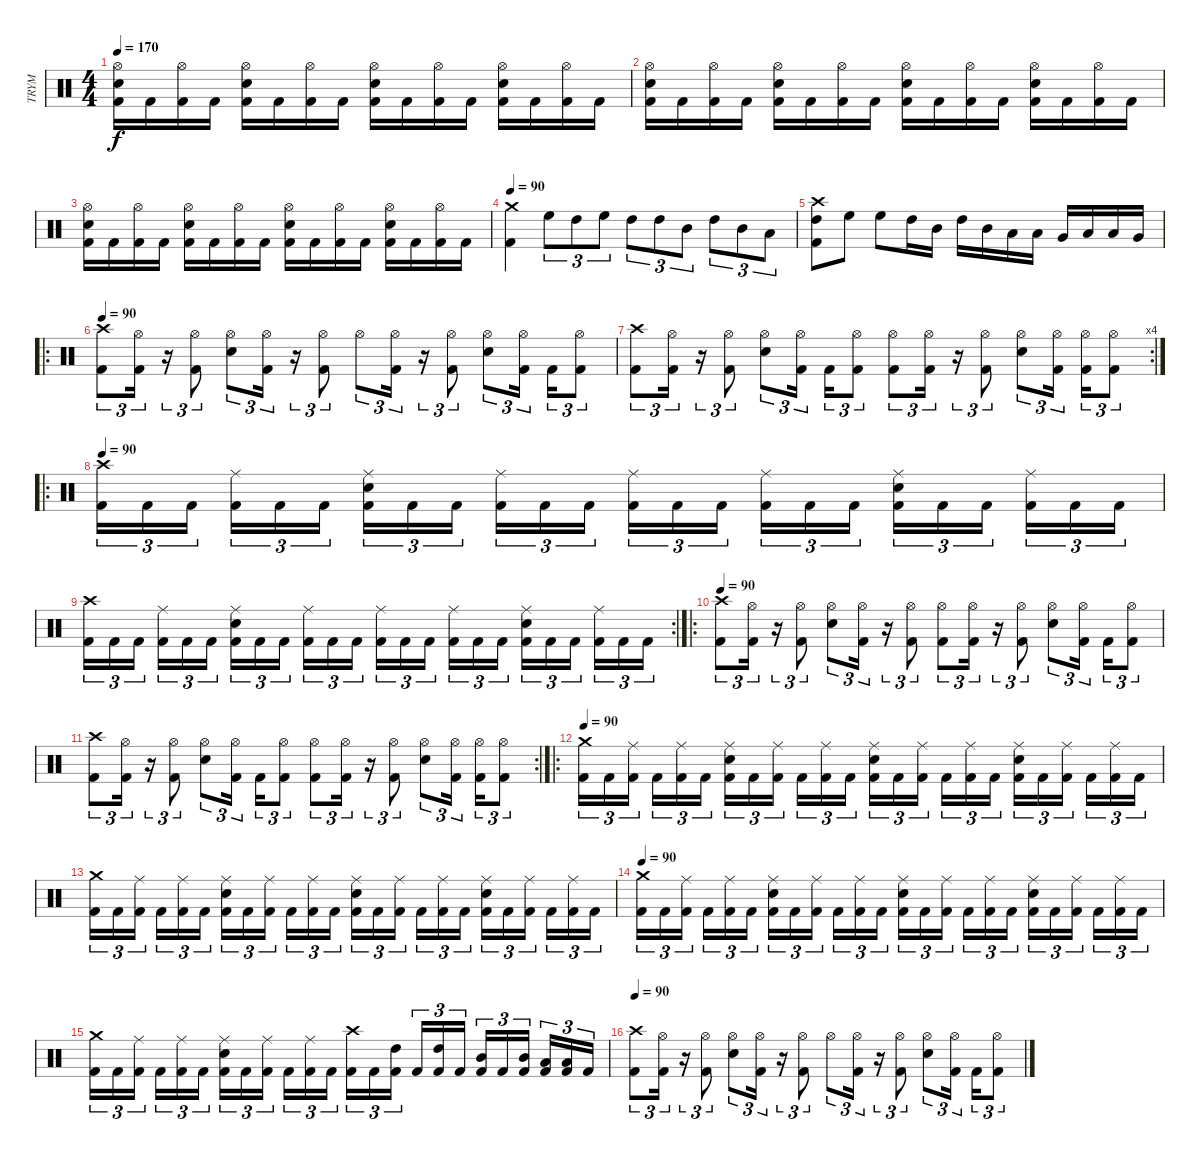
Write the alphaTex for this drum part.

\track ("TRYM" "TRYM") {instrument percussion}
\staff {score}
\articulation defaults
\ts (4 4)
\tempo 170
\clef neutral
\ks c
("Kick (hit) 2" "Hi-Hat (open)" "Electric Snare (hit)").16{dy f} "Kick (hit) 2".16 ("Kick (hit) 2" "Hi-Hat (open)").16 "Kick (hit) 2".16 ("Kick (hit) 2" "Hi-Hat (open)" "Electric Snare (hit)").16 "Kick (hit) 2".16 ("Kick (hit) 2" "Hi-Hat (open)").16 "Kick (hit) 2".16 ("Kick (hit) 2" "Hi-Hat (open)" "Electric Snare (hit)").16 "Kick (hit) 2".16 ("Kick (hit) 2" "Hi-Hat (open)").16 "Kick (hit) 2".16 ("Kick (hit) 2" "Hi-Hat (open)" "Electric Snare (hit)").16 "Kick (hit) 2".16 ("Kick (hit) 2" "Hi-Hat (open)").16 "Kick (hit) 2".16 |
("Kick (hit) 2" "Hi-Hat (open)" "Electric Snare (hit)").16 "Kick (hit) 2".16 ("Kick (hit) 2" "Hi-Hat (open)").16 "Kick (hit) 2".16 ("Kick (hit) 2" "Hi-Hat (open)" "Electric Snare (hit)").16 "Kick (hit) 2".16 ("Kick (hit) 2" "Hi-Hat (open)").16 "Kick (hit) 2".16 ("Kick (hit) 2" "Hi-Hat (open)" "Electric Snare (hit)").16 "Kick (hit) 2".16 ("Kick (hit) 2" "Hi-Hat (open)").16 "Kick (hit) 2".16 ("Kick (hit) 2" "Hi-Hat (open)" "Electric Snare (hit)").16 "Kick (hit) 2".16 ("Kick (hit) 2" "Hi-Hat (open)").16 "Kick (hit) 2".16 |
("Kick (hit) 2" "Hi-Hat (open)" "Electric Snare (hit)").16 "Kick (hit) 2".16 ("Kick (hit) 2" "Hi-Hat (open)").16 "Kick (hit) 2".16 ("Kick (hit) 2" "Hi-Hat (open)" "Electric Snare (hit)").16 "Kick (hit) 2".16 ("Kick (hit) 2" "Hi-Hat (open)").16 "Kick (hit) 2".16 ("Kick (hit) 2" "Hi-Hat (open)" "Electric Snare (hit)").16 "Kick (hit) 2".16 ("Kick (hit) 2" "Hi-Hat (open)").16 "Kick (hit) 2".16 ("Kick (hit) 2" "Hi-Hat (open)" "Electric Snare (hit)").16 "Kick (hit) 2".16 ("Kick (hit) 2" "Hi-Hat (open)").16 "Kick (hit) 2".16 |
\tempo 90
("Kick (hit) 2" "Crash medium (hit)").4 "High Floor Tom (hit)".8{tu (3 2)} "High Tom (hit)".8{tu (3 2)} "High Floor Tom (hit)".8{tu (3 2)} "High Tom (hit)".8{tu (3 2)} "High Tom (hit)".8{tu (3 2)} "Mid Tom (hit)".8{tu (3 2)} "High Tom (hit)".8{tu (3 2)} "Mid Tom (hit)".8{tu (3 2)} "Low Tom (hit)".8{tu (3 2)} |
("Kick (hit) 2" "High Tom (hit)" "Crash high (hit)").8 "High Floor Tom (hit)".8 "High Floor Tom (hit)".8 "High Tom (hit)".16 "Mid Tom (hit)".16 "High Tom (hit)".16 "Mid Tom (hit)".16 "Low Tom (hit)".16 "Low Tom (hit)".16 "Very Low Tom (hit)".16 "Low Tom (hit)".16 "Low Tom (hit)".16 "Very Low Tom (hit)".16 |
\ro
\tempo 90
("Kick (hit) 2" "Crash high (hit)").8{tu (3 2)} ("Kick (hit) 2" "Hi-Hat (open)").16{tu (3 2)} r.16{tu (3 2)} ("Kick (hit) 2" "Hi-Hat (open)").8{tu (3 2)} ("Hi-Hat (open)" "Electric Snare (hit)").8{tu (3 2)} ("Kick (hit) 2" "Hi-Hat (open)").16{tu (3 2)} r.16{tu (3 2)} ("Kick (hit) 2" "Hi-Hat (open)").8{tu (3 2)} "Hi-Hat (open)".8{tu (3 2)} ("Kick (hit) 2" "Hi-Hat (open)").16{tu (3 2)} r.16{tu (3 2)} ("Kick (hit) 2" "Hi-Hat (open)").8{tu (3 2)} ("Hi-Hat (open)" "Electric Snare (hit)").8{tu (3 2)} ("Kick (hit) 2" "Hi-Hat (open)").16{tu (3 2)} "Kick (hit) 2".16{tu (3 2)} ("Kick (hit) 2" "Hi-Hat (open)").8{tu (3 2)} |
\rc 4
("Kick (hit) 2" "Crash high (hit)").8{tu (3 2)} ("Kick (hit) 2" "Hi-Hat (open)").16{tu (3 2)} r.16{tu (3 2)} ("Kick (hit) 2" "Hi-Hat (open)").8{tu (3 2)} ("Hi-Hat (open)" "Electric Snare (hit)").8{tu (3 2)} ("Kick (hit) 2" "Hi-Hat (open)").16{tu (3 2)} "Kick (hit) 2".16{tu (3 2)} ("Kick (hit) 2" "Hi-Hat (open)").8{tu (3 2)} ("Kick (hit) 2" "Hi-Hat (open)").8{tu (3 2)} ("Kick (hit) 2" "Hi-Hat (open)").16{tu (3 2)} r.16{tu (3 2)} ("Kick (hit) 2" "Hi-Hat (open)").8{tu (3 2)} ("Hi-Hat (open)" "Electric Snare (hit)").8{tu (3 2)} ("Kick (hit) 2" "Hi-Hat (open)").16{tu (3 2)} ("Kick (hit) 2" "Hi-Hat (open)").16{tu (3 2)} ("Kick (hit) 2" "Hi-Hat (open)").8{tu (3 2)} |
\ro
\tempo 90
("Kick (hit) 2" "Crash high (hit)").16{tu (3 2)} "Kick (hit) 2".16{tu (3 2)} "Kick (hit) 2".16{tu (3 2)} ("Kick (hit) 2" "Ride (middle)").16{tu (3 2)} "Kick (hit) 2".16{tu (3 2)} "Kick (hit) 2".16{tu (3 2)} ("Kick (hit) 2" "Ride (middle)" "Electric Snare (hit)").16{tu (3 2)} "Kick (hit) 2".16{tu (3 2)} "Kick (hit) 2".16{tu (3 2)} ("Kick (hit) 2" "Ride (middle)").16{tu (3 2)} "Kick (hit) 2".16{tu (3 2)} "Kick (hit) 2".16{tu (3 2)} ("Kick (hit) 2" "Ride (middle)").16{tu (3 2)} "Kick (hit) 2".16{tu (3 2)} "Kick (hit) 2".16{tu (3 2)} ("Kick (hit) 2" "Ride (middle)").16{tu (3 2)} "Kick (hit) 2".16{tu (3 2)} "Kick (hit) 2".16{tu (3 2)} ("Kick (hit) 2" "Ride (middle)" "Electric Snare (hit)").16{tu (3 2)} "Kick (hit) 2".16{tu (3 2)} "Kick (hit) 2".16{tu (3 2)} ("Kick (hit) 2" "Ride (middle)").16{tu (3 2)} "Kick (hit) 2".16{tu (3 2)} "Kick (hit) 2".16{tu (3 2)} |
\rc 2
("Kick (hit) 2" "Crash high (hit)").16{tu (3 2)} "Kick (hit) 2".16{tu (3 2)} "Kick (hit) 2".16{tu (3 2)} ("Kick (hit) 2" "Ride (middle)").16{tu (3 2)} "Kick (hit) 2".16{tu (3 2)} "Kick (hit) 2".16{tu (3 2)} ("Kick (hit) 2" "Ride (middle)" "Electric Snare (hit)").16{tu (3 2)} "Kick (hit) 2".16{tu (3 2)} "Kick (hit) 2".16{tu (3 2)} ("Kick (hit) 2" "Ride (middle)").16{tu (3 2)} "Kick (hit) 2".16{tu (3 2)} "Kick (hit) 2".16{tu (3 2)} ("Kick (hit) 2" "Ride (middle)").16{tu (3 2)} "Kick (hit) 2".16{tu (3 2)} "Kick (hit) 2".16{tu (3 2)} ("Kick (hit) 2" "Ride (middle)").16{tu (3 2)} "Kick (hit) 2".16{tu (3 2)} "Kick (hit) 2".16{tu (3 2)} ("Kick (hit) 2" "Ride (middle)" "Electric Snare (hit)").16{tu (3 2)} "Kick (hit) 2".16{tu (3 2)} "Kick (hit) 2".16{tu (3 2)} ("Kick (hit) 2" "Ride (middle)").16{tu (3 2)} "Kick (hit) 2".16{tu (3 2)} "Kick (hit) 2".16{tu (3 2)} |
\ro
\tempo 90
("Kick (hit) 2" "Crash high (hit)").8{tu (3 2)} ("Kick (hit) 2" "Hi-Hat (open)").16{tu (3 2)} r.16{tu (3 2)} ("Kick (hit) 2" "Hi-Hat (open)").8{tu (3 2)} ("Hi-Hat (open)" "Electric Snare (hit)").8{tu (3 2)} ("Kick (hit) 2" "Hi-Hat (open)").16{tu (3 2)} r.16{tu (3 2)} ("Kick (hit) 2" "Hi-Hat (open)").8{tu (3 2)} ("Kick (hit) 2" "Hi-Hat (open)").8{tu (3 2)} ("Kick (hit) 2" "Hi-Hat (open)").16{tu (3 2)} r.16{tu (3 2)} ("Kick (hit) 2" "Hi-Hat (open)").8{tu (3 2)} ("Hi-Hat (open)" "Electric Snare (hit)").8{tu (3 2)} ("Kick (hit) 2" "Hi-Hat (open)").16{tu (3 2)} "Kick (hit) 2".16{tu (3 2)} ("Kick (hit) 2" "Hi-Hat (open)").8{tu (3 2)} |
\rc 2
("Kick (hit) 2" "Crash high (hit)").8{tu (3 2)} ("Kick (hit) 2" "Hi-Hat (open)").16{tu (3 2)} r.16{tu (3 2)} ("Kick (hit) 2" "Hi-Hat (open)").8{tu (3 2)} ("Hi-Hat (open)" "Electric Snare (hit)").8{tu (3 2)} ("Kick (hit) 2" "Hi-Hat (open)").16{tu (3 2)} "Kick (hit) 2".16{tu (3 2)} ("Kick (hit) 2" "Hi-Hat (open)").8{tu (3 2)} ("Kick (hit) 2" "Hi-Hat (open)").8{tu (3 2)} ("Kick (hit) 2" "Hi-Hat (open)").16{tu (3 2)} r.16{tu (3 2)} ("Kick (hit) 2" "Hi-Hat (open)").8{tu (3 2)} ("Hi-Hat (open)" "Electric Snare (hit)").8{tu (3 2)} ("Kick (hit) 2" "Hi-Hat (open)").16{tu (3 2)} ("Kick (hit) 2" "Hi-Hat (open)").16{tu (3 2)} ("Kick (hit) 2" "Hi-Hat (open)").8{tu (3 2)} |
\ro
\tempo 90
("Kick (hit) 2" "Crash medium (hit)").16{tu (3 2)} "Kick (hit) 2".16{tu (3 2)} ("Kick (hit) 2" "Ride (middle)").16{tu (3 2)} "Kick (hit) 2".16{tu (3 2)} ("Kick (hit) 2" "Ride (middle)").16{tu (3 2)} "Kick (hit) 2".16{tu (3 2)} ("Kick (hit) 2" "Ride (middle)" "Electric Snare (hit)").16{tu (3 2)} "Kick (hit) 2".16{tu (3 2)} ("Kick (hit) 2" "Ride (middle)").16{tu (3 2)} "Kick (hit) 2".16{tu (3 2)} ("Kick (hit) 2" "Ride (middle)").16{tu (3 2)} "Kick (hit) 2".16{tu (3 2)} ("Kick (hit) 2" "Ride (middle)" "Electric Snare (hit)").16{tu (3 2)} "Kick (hit) 2".16{tu (3 2)} ("Kick (hit) 2" "Ride (middle)").16{tu (3 2)} "Kick (hit) 2".16{tu (3 2)} ("Kick (hit) 2" "Ride (middle)").16{tu (3 2)} "Kick (hit) 2".16{tu (3 2)} ("Kick (hit) 2" "Ride (middle)" "Electric Snare (hit)").16{tu (3 2)} "Kick (hit) 2".16{tu (3 2)} ("Kick (hit) 2" "Ride (middle)").16{tu (3 2)} "Kick (hit) 2".16{tu (3 2)} ("Kick (hit) 2" "Ride (middle)").16{tu (3 2)} "Kick (hit) 2".16{tu (3 2)} |
("Kick (hit) 2" "Crash medium (hit)").16{tu (3 2)} "Kick (hit) 2".16{tu (3 2)} ("Kick (hit) 2" "Ride (middle)").16{tu (3 2)} "Kick (hit) 2".16{tu (3 2)} ("Kick (hit) 2" "Ride (middle)").16{tu (3 2)} "Kick (hit) 2".16{tu (3 2)} ("Kick (hit) 2" "Ride (middle)" "Electric Snare (hit)").16{tu (3 2)} "Kick (hit) 2".16{tu (3 2)} ("Kick (hit) 2" "Ride (middle)").16{tu (3 2)} "Kick (hit) 2".16{tu (3 2)} ("Kick (hit) 2" "Ride (middle)").16{tu (3 2)} "Kick (hit) 2".16{tu (3 2)} ("Kick (hit) 2" "Ride (middle)" "Electric Snare (hit)").16{tu (3 2)} "Kick (hit) 2".16{tu (3 2)} ("Kick (hit) 2" "Ride (middle)").16{tu (3 2)} "Kick (hit) 2".16{tu (3 2)} ("Kick (hit) 2" "Ride (middle)").16{tu (3 2)} "Kick (hit) 2".16{tu (3 2)} ("Kick (hit) 2" "Ride (middle)" "Electric Snare (hit)").16{tu (3 2)} "Kick (hit) 2".16{tu (3 2)} ("Kick (hit) 2" "Ride (middle)").16{tu (3 2)} "Kick (hit) 2".16{tu (3 2)} ("Kick (hit) 2" "Ride (middle)").16{tu (3 2)} "Kick (hit) 2".16{tu (3 2)} |
\tempo 90
("Kick (hit) 2" "Crash medium (hit)").16{tu (3 2)} "Kick (hit) 2".16{tu (3 2)} ("Kick (hit) 2" "Ride (middle)").16{tu (3 2)} "Kick (hit) 2".16{tu (3 2)} ("Kick (hit) 2" "Ride (middle)").16{tu (3 2)} "Kick (hit) 2".16{tu (3 2)} ("Kick (hit) 2" "Ride (middle)" "Electric Snare (hit)").16{tu (3 2)} "Kick (hit) 2".16{tu (3 2)} ("Kick (hit) 2" "Ride (middle)").16{tu (3 2)} "Kick (hit) 2".16{tu (3 2)} ("Kick (hit) 2" "Ride (middle)").16{tu (3 2)} "Kick (hit) 2".16{tu (3 2)} ("Kick (hit) 2" "Ride (middle)" "Electric Snare (hit)").16{tu (3 2)} "Kick (hit) 2".16{tu (3 2)} ("Kick (hit) 2" "Ride (middle)").16{tu (3 2)} "Kick (hit) 2".16{tu (3 2)} ("Kick (hit) 2" "Ride (middle)").16{tu (3 2)} "Kick (hit) 2".16{tu (3 2)} ("Kick (hit) 2" "Ride (middle)" "Electric Snare (hit)").16{tu (3 2)} "Kick (hit) 2".16{tu (3 2)} ("Kick (hit) 2" "Ride (middle)").16{tu (3 2)} "Kick (hit) 2".16{tu (3 2)} ("Kick (hit) 2" "Ride (middle)").16{tu (3 2)} "Kick (hit) 2".16{tu (3 2)} |
("Kick (hit) 2" "Crash medium (hit)").16{tu (3 2)} "Kick (hit) 2".16{tu (3 2)} ("Kick (hit) 2" "Ride (middle)").16{tu (3 2)} "Kick (hit) 2".16{tu (3 2)} ("Kick (hit) 2" "Ride (middle)").16{tu (3 2)} "Kick (hit) 2".16{tu (3 2)} ("Kick (hit) 2" "Ride (middle)" "Electric Snare (hit)").16{tu (3 2)} "Kick (hit) 2".16{tu (3 2)} ("Kick (hit) 2" "Ride (middle)").16{tu (3 2)} "Kick (hit) 2".16{tu (3 2)} ("Kick (hit) 2" "Ride (middle)").16{tu (3 2)} "Kick (hit) 2".16{tu (3 2)} ("Kick (hit) 2" "Crash high (hit)").16{tu (3 2)} "Kick (hit) 2".16{tu (3 2)} ("Kick (hit) 2" "High Tom (hit)").16{tu (3 2)} "Kick (hit) 2".16{tu (3 2)} ("Kick (hit) 2" "High Tom (hit)").16{tu (3 2)} "Kick (hit) 2".16{tu (3 2)} ("Kick (hit) 2" "Mid Tom (hit)").16{tu (3 2)} "Kick (hit) 2".16{tu (3 2)} ("Kick (hit) 2" "Mid Tom (hit)").16{tu (3 2)} ("Kick (hit) 2" "Low Tom (hit)").16{tu (3 2)} ("Kick (hit) 2" "Low Tom (hit)").16{tu (3 2)} "Kick (hit) 2".16{tu (3 2)} |
\tempo 90
("Kick (hit) 2" "Crash high (hit)").8{tu (3 2)} ("Kick (hit) 2" "Hi-Hat (open)").16{tu (3 2)} r.16{tu (3 2)} ("Kick (hit) 2" "Hi-Hat (open)").8{tu (3 2)} ("Hi-Hat (open)" "Electric Snare (hit)").8{tu (3 2)} ("Kick (hit) 2" "Hi-Hat (open)").16{tu (3 2)} r.16{tu (3 2)} ("Kick (hit) 2" "Hi-Hat (open)").8{tu (3 2)} "Hi-Hat (open)".8{tu (3 2)} ("Kick (hit) 2" "Hi-Hat (open)").16{tu (3 2)} r.16{tu (3 2)} ("Kick (hit) 2" "Hi-Hat (open)").8{tu (3 2)} ("Hi-Hat (open)" "Electric Snare (hit)").8{tu (3 2)} ("Kick (hit) 2" "Hi-Hat (open)").16{tu (3 2)} "Kick (hit) 2".16{tu (3 2)} ("Kick (hit) 2" "Hi-Hat (open)").8{tu (3 2)}
